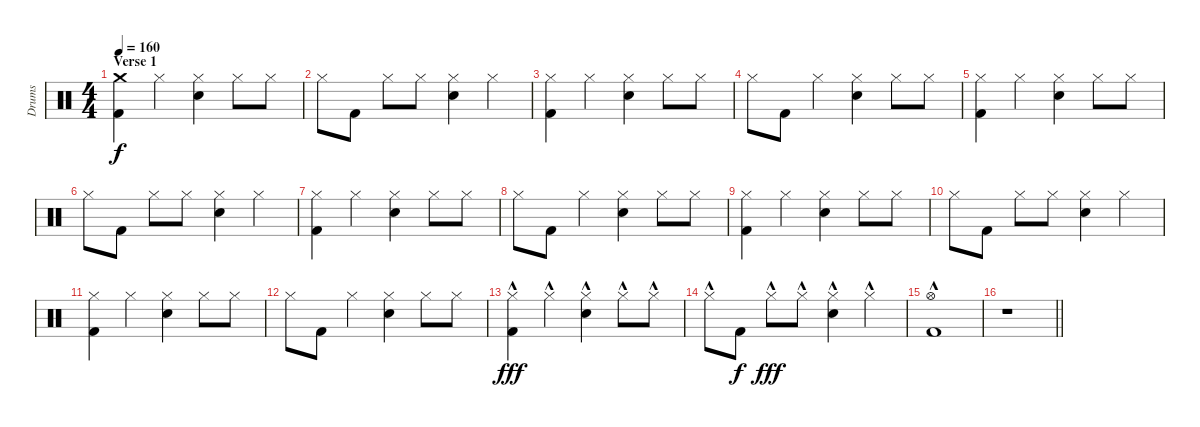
\track ("Drums" "Drums") {instrument percussion}
\staff {score}
\articulation defaults
\ts (4 4)
\section ("" "Verse 1")
\tempo 160
\clef neutral
\ks c
("Crash medium (hit)" "Kick (hit) 2").4{dy f} "Hi-Hat (closed)".4 ("Hi-Hat (closed)" "Electric Snare (hit)").4 "Hi-Hat (closed)".8 "Hi-Hat (closed)".8 |
"Hi-Hat (closed)".8 "Kick (hit) 2".8 "Hi-Hat (closed)".8 "Hi-Hat (closed)".8 ("Hi-Hat (closed)" "Electric Snare (hit)").4 "Hi-Hat (closed)".4 |
("Hi-Hat (closed)" "Kick (hit) 2").4 "Hi-Hat (closed)".4 ("Hi-Hat (closed)" "Electric Snare (hit)").4 "Hi-Hat (closed)".8 "Hi-Hat (closed)".8 |
"Hi-Hat (closed)".8 "Kick (hit) 2".8 "Hi-Hat (closed)".4 ("Hi-Hat (closed)" "Electric Snare (hit)").4 "Hi-Hat (closed)".8 "Hi-Hat (closed)".8 |
("Hi-Hat (closed)" "Kick (hit) 2").4 "Hi-Hat (closed)".4 ("Hi-Hat (closed)" "Electric Snare (hit)").4 "Hi-Hat (closed)".8 "Hi-Hat (closed)".8 |
"Hi-Hat (closed)".8 "Kick (hit) 2".8 "Hi-Hat (closed)".8 "Hi-Hat (closed)".8 ("Hi-Hat (closed)" "Electric Snare (hit)").4 "Hi-Hat (closed)".4 |
("Hi-Hat (closed)" "Kick (hit) 2").4 "Hi-Hat (closed)".4 ("Hi-Hat (closed)" "Electric Snare (hit)").4 "Hi-Hat (closed)".8 "Hi-Hat (closed)".8 |
"Hi-Hat (closed)".8 "Kick (hit) 2".8 "Hi-Hat (closed)".4 ("Hi-Hat (closed)" "Electric Snare (hit)").4 "Hi-Hat (closed)".8 "Hi-Hat (closed)".8 |
("Hi-Hat (closed)" "Kick (hit) 2").4 "Hi-Hat (closed)".4 ("Hi-Hat (closed)" "Electric Snare (hit)").4 "Hi-Hat (closed)".8 "Hi-Hat (closed)".8 |
"Hi-Hat (closed)".8 "Kick (hit) 2".8 "Hi-Hat (closed)".8 "Hi-Hat (closed)".8 ("Hi-Hat (closed)" "Electric Snare (hit)").4 "Hi-Hat (closed)".4 |
("Hi-Hat (closed)" "Kick (hit) 2").4 "Hi-Hat (closed)".4 ("Hi-Hat (closed)" "Electric Snare (hit)").4 "Hi-Hat (closed)".8 "Hi-Hat (closed)".8 |
"Hi-Hat (closed)".8 "Kick (hit) 2".8 "Hi-Hat (closed)".4 ("Hi-Hat (closed)" "Electric Snare (hit)").4 "Hi-Hat (closed)".8 "Hi-Hat (closed)".8 |
("Hi-Hat (closed)"{hac} "Kick (hit) 2").4{dy fff} "Hi-Hat (closed)"{hac}.4 ("Hi-Hat (closed)"{hac} "Electric Snare (hit)").4 "Hi-Hat (closed)"{hac}.8 "Hi-Hat (closed)"{hac}.8 |
"Hi-Hat (closed)"{hac}.8 "Kick (hit) 2".8{dy f} "Hi-Hat (closed)"{hac}.8{dy fff} "Hi-Hat (closed)"{hac}.8 ("Hi-Hat (closed)"{hac} "Electric Snare (hit)").4 "Hi-Hat (closed)"{hac}.4 |
("Hi-Hat (open)"{hac} "Kick (hit) 2").1 |
\barLineRight lightlight
r.1
